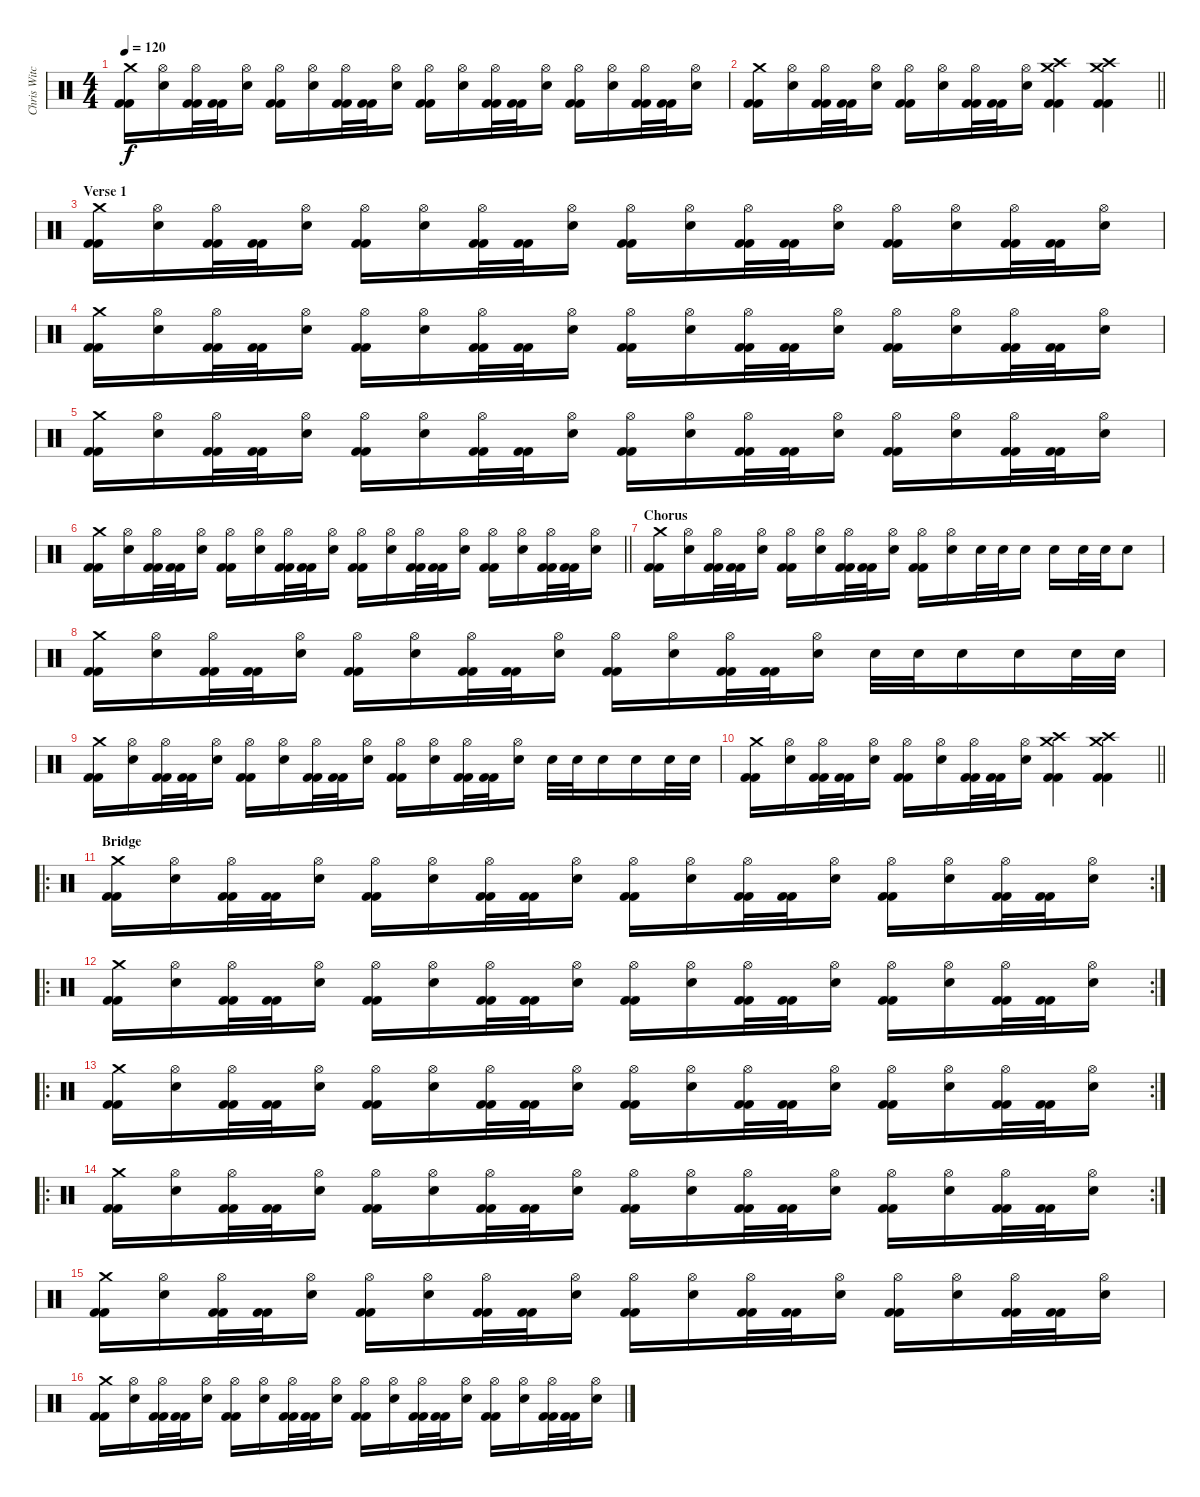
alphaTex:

\track ("Chris Witchhunter" "Chris Witc") {instrument percussion}
\staff {score}
\articulation defaults
\ts (4 4)
\tempo 120
\clef neutral
\ks c
("Crash medium (hit)" "Kick (hit) 2" "Kick (hit) 2").16{dy f} ("Hi-Hat (open)" "Snare (hit) 2").16 ("Hi-Hat (open)" "Kick (hit) 2" "Kick (hit) 2").32 ("Kick (hit) 2" "Kick (hit) 2").32 ("Hi-Hat (open)" "Snare (hit) 2").16 ("Hi-Hat (open)" "Kick (hit) 2" "Kick (hit) 2").16 ("Hi-Hat (open)" "Snare (hit) 2").16 ("Hi-Hat (open)" "Kick (hit) 2" "Kick (hit) 2").32 ("Kick (hit) 2" "Kick (hit) 2").32 ("Hi-Hat (open)" "Snare (hit) 2").16 ("Hi-Hat (open)" "Kick (hit) 2" "Kick (hit) 2").16 ("Hi-Hat (open)" "Snare (hit) 2").16 ("Hi-Hat (open)" "Kick (hit) 2" "Kick (hit) 2").32 ("Kick (hit) 2" "Kick (hit) 2").32 ("Hi-Hat (open)" "Snare (hit) 2").16 ("Hi-Hat (open)" "Kick (hit) 2" "Kick (hit) 2").16 ("Hi-Hat (open)" "Snare (hit) 2").16 ("Hi-Hat (open)" "Kick (hit) 2" "Kick (hit) 2").32 ("Kick (hit) 2" "Kick (hit) 2").32 ("Hi-Hat (open)" "Snare (hit) 2").16 |
\barLineRight lightlight
("Crash medium (hit)" "Kick (hit) 2" "Kick (hit) 2").16 ("Hi-Hat (open)" "Snare (hit) 2").16 ("Hi-Hat (open)" "Kick (hit) 2" "Kick (hit) 2").32 ("Kick (hit) 2" "Kick (hit) 2").32 ("Hi-Hat (open)" "Snare (hit) 2").16 ("Hi-Hat (open)" "Kick (hit) 2" "Kick (hit) 2").16 ("Hi-Hat (open)" "Snare (hit) 2").16 ("Hi-Hat (open)" "Kick (hit) 2" "Kick (hit) 2").32 ("Kick (hit) 2" "Kick (hit) 2").32 ("Hi-Hat (open)" "Snare (hit) 2").16 ("Crash high (hit)" "Crash medium (hit)" "Kick (hit) 2" "Kick (hit) 2").4 ("Crash high (hit)" "Crash medium (hit)" "Kick (hit) 2" "Kick (hit) 2").4 |
\section ("" "Verse 1")
("Crash medium (hit)" "Kick (hit) 2" "Kick (hit) 2").16 ("Hi-Hat (open)" "Snare (hit) 2").16 ("Hi-Hat (open)" "Kick (hit) 2" "Kick (hit) 2").32 ("Kick (hit) 2" "Kick (hit) 2").32 ("Hi-Hat (open)" "Snare (hit) 2").16 ("Hi-Hat (open)" "Kick (hit) 2" "Kick (hit) 2").16 ("Hi-Hat (open)" "Snare (hit) 2").16 ("Hi-Hat (open)" "Kick (hit) 2" "Kick (hit) 2").32 ("Kick (hit) 2" "Kick (hit) 2").32 ("Hi-Hat (open)" "Snare (hit) 2").16 ("Hi-Hat (open)" "Kick (hit) 2" "Kick (hit) 2").16 ("Hi-Hat (open)" "Snare (hit) 2").16 ("Hi-Hat (open)" "Kick (hit) 2" "Kick (hit) 2").32 ("Kick (hit) 2" "Kick (hit) 2").32 ("Hi-Hat (open)" "Snare (hit) 2").16 ("Hi-Hat (open)" "Kick (hit) 2" "Kick (hit) 2").16 ("Hi-Hat (open)" "Snare (hit) 2").16 ("Hi-Hat (open)" "Kick (hit) 2" "Kick (hit) 2").32 ("Kick (hit) 2" "Kick (hit) 2").32 ("Hi-Hat (open)" "Snare (hit) 2").16 |
("Crash medium (hit)" "Kick (hit) 2" "Kick (hit) 2").16 ("Hi-Hat (open)" "Snare (hit) 2").16 ("Hi-Hat (open)" "Kick (hit) 2" "Kick (hit) 2").32 ("Kick (hit) 2" "Kick (hit) 2").32 ("Hi-Hat (open)" "Snare (hit) 2").16 ("Hi-Hat (open)" "Kick (hit) 2" "Kick (hit) 2").16 ("Hi-Hat (open)" "Snare (hit) 2").16 ("Hi-Hat (open)" "Kick (hit) 2" "Kick (hit) 2").32 ("Kick (hit) 2" "Kick (hit) 2").32 ("Hi-Hat (open)" "Snare (hit) 2").16 ("Hi-Hat (open)" "Kick (hit) 2" "Kick (hit) 2").16 ("Hi-Hat (open)" "Snare (hit) 2").16 ("Hi-Hat (open)" "Kick (hit) 2" "Kick (hit) 2").32 ("Kick (hit) 2" "Kick (hit) 2").32 ("Hi-Hat (open)" "Snare (hit) 2").16 ("Hi-Hat (open)" "Kick (hit) 2" "Kick (hit) 2").16 ("Hi-Hat (open)" "Snare (hit) 2").16 ("Hi-Hat (open)" "Kick (hit) 2" "Kick (hit) 2").32 ("Kick (hit) 2" "Kick (hit) 2").32 ("Hi-Hat (open)" "Snare (hit) 2").16 |
("Crash medium (hit)" "Kick (hit) 2" "Kick (hit) 2").16 ("Hi-Hat (open)" "Snare (hit) 2").16 ("Hi-Hat (open)" "Kick (hit) 2" "Kick (hit) 2").32 ("Kick (hit) 2" "Kick (hit) 2").32 ("Hi-Hat (open)" "Snare (hit) 2").16 ("Hi-Hat (open)" "Kick (hit) 2" "Kick (hit) 2").16 ("Hi-Hat (open)" "Snare (hit) 2").16 ("Hi-Hat (open)" "Kick (hit) 2" "Kick (hit) 2").32 ("Kick (hit) 2" "Kick (hit) 2").32 ("Hi-Hat (open)" "Snare (hit) 2").16 ("Hi-Hat (open)" "Kick (hit) 2" "Kick (hit) 2").16 ("Hi-Hat (open)" "Snare (hit) 2").16 ("Hi-Hat (open)" "Kick (hit) 2" "Kick (hit) 2").32 ("Kick (hit) 2" "Kick (hit) 2").32 ("Hi-Hat (open)" "Snare (hit) 2").16 ("Hi-Hat (open)" "Kick (hit) 2" "Kick (hit) 2").16 ("Hi-Hat (open)" "Snare (hit) 2").16 ("Hi-Hat (open)" "Kick (hit) 2" "Kick (hit) 2").32 ("Kick (hit) 2" "Kick (hit) 2").32 ("Hi-Hat (open)" "Snare (hit) 2").16 |
\barLineRight lightlight
("Crash medium (hit)" "Kick (hit) 2" "Kick (hit) 2").16 ("Hi-Hat (open)" "Snare (hit) 2").16 ("Hi-Hat (open)" "Kick (hit) 2" "Kick (hit) 2").32 ("Kick (hit) 2" "Kick (hit) 2").32 ("Hi-Hat (open)" "Snare (hit) 2").16 ("Hi-Hat (open)" "Kick (hit) 2" "Kick (hit) 2").16 ("Hi-Hat (open)" "Snare (hit) 2").16 ("Hi-Hat (open)" "Kick (hit) 2" "Kick (hit) 2").32 ("Kick (hit) 2" "Kick (hit) 2").32 ("Hi-Hat (open)" "Snare (hit) 2").16 ("Hi-Hat (open)" "Kick (hit) 2" "Kick (hit) 2").16 ("Hi-Hat (open)" "Snare (hit) 2").16 ("Hi-Hat (open)" "Kick (hit) 2" "Kick (hit) 2").32 ("Kick (hit) 2" "Kick (hit) 2").32 ("Hi-Hat (open)" "Snare (hit) 2").16 ("Hi-Hat (open)" "Kick (hit) 2" "Kick (hit) 2").16 ("Hi-Hat (open)" "Snare (hit) 2").16 ("Hi-Hat (open)" "Kick (hit) 2" "Kick (hit) 2").32 ("Kick (hit) 2" "Kick (hit) 2").32 ("Hi-Hat (open)" "Snare (hit) 2").16 |
\section ("" "Chorus")
("Crash medium (hit)" "Kick (hit) 2" "Kick (hit) 2").16 ("Hi-Hat (open)" "Snare (hit) 2").16 ("Hi-Hat (open)" "Kick (hit) 2" "Kick (hit) 2").32 ("Kick (hit) 2" "Kick (hit) 2").32 ("Hi-Hat (open)" "Snare (hit) 2").16 ("Hi-Hat (open)" "Kick (hit) 2" "Kick (hit) 2").16 ("Hi-Hat (open)" "Snare (hit) 2").16 ("Hi-Hat (open)" "Kick (hit) 2" "Kick (hit) 2").32 ("Kick (hit) 2" "Kick (hit) 2").32 ("Hi-Hat (open)" "Snare (hit) 2").16 ("Hi-Hat (open)" "Kick (hit) 2" "Kick (hit) 2").16 ("Hi-Hat (open)" "Snare (hit) 2").16 "Snare (hit) 2".32 "Snare (hit) 2".32 "Snare (hit) 2".16 "Snare (hit) 2".16 "Snare (hit) 2".32 "Snare (hit) 2".32 "Snare (hit) 2".8 |
("Crash medium (hit)" "Kick (hit) 2" "Kick (hit) 2").16 ("Hi-Hat (open)" "Snare (hit) 2").16 ("Hi-Hat (open)" "Kick (hit) 2" "Kick (hit) 2").32 ("Kick (hit) 2" "Kick (hit) 2").32 ("Hi-Hat (open)" "Snare (hit) 2").16 ("Hi-Hat (open)" "Kick (hit) 2" "Kick (hit) 2").16 ("Hi-Hat (open)" "Snare (hit) 2").16 ("Hi-Hat (open)" "Kick (hit) 2" "Kick (hit) 2").32 ("Kick (hit) 2" "Kick (hit) 2").32 ("Hi-Hat (open)" "Snare (hit) 2").16 ("Hi-Hat (open)" "Kick (hit) 2" "Kick (hit) 2").16 ("Hi-Hat (open)" "Snare (hit) 2").16 ("Hi-Hat (open)" "Kick (hit) 2" "Kick (hit) 2").32 ("Kick (hit) 2" "Kick (hit) 2").32 ("Hi-Hat (open)" "Snare (hit) 2").16 "Snare (hit) 2".32 "Snare (hit) 2".32 "Snare (hit) 2".16 "Snare (hit) 2".16 "Snare (hit) 2".32 "Snare (hit) 2".32 |
("Crash medium (hit)" "Kick (hit) 2" "Kick (hit) 2").16 ("Hi-Hat (open)" "Snare (hit) 2").16 ("Hi-Hat (open)" "Kick (hit) 2" "Kick (hit) 2").32 ("Kick (hit) 2" "Kick (hit) 2").32 ("Hi-Hat (open)" "Snare (hit) 2").16 ("Hi-Hat (open)" "Kick (hit) 2" "Kick (hit) 2").16 ("Hi-Hat (open)" "Snare (hit) 2").16 ("Hi-Hat (open)" "Kick (hit) 2" "Kick (hit) 2").32 ("Kick (hit) 2" "Kick (hit) 2").32 ("Hi-Hat (open)" "Snare (hit) 2").16 ("Hi-Hat (open)" "Kick (hit) 2" "Kick (hit) 2").16 ("Hi-Hat (open)" "Snare (hit) 2").16 ("Hi-Hat (open)" "Kick (hit) 2" "Kick (hit) 2").32 ("Kick (hit) 2" "Kick (hit) 2").32 ("Hi-Hat (open)" "Snare (hit) 2").16 "Snare (hit) 2".32 "Snare (hit) 2".32 "Snare (hit) 2".16 "Snare (hit) 2".16 "Snare (hit) 2".32 "Snare (hit) 2".32 |
\barLineRight lightlight
("Crash medium (hit)" "Kick (hit) 2" "Kick (hit) 2").16 ("Hi-Hat (open)" "Snare (hit) 2").16 ("Hi-Hat (open)" "Kick (hit) 2" "Kick (hit) 2").32 ("Kick (hit) 2" "Kick (hit) 2").32 ("Hi-Hat (open)" "Snare (hit) 2").16 ("Hi-Hat (open)" "Kick (hit) 2" "Kick (hit) 2").16 ("Hi-Hat (open)" "Snare (hit) 2").16 ("Hi-Hat (open)" "Kick (hit) 2" "Kick (hit) 2").32 ("Kick (hit) 2" "Kick (hit) 2").32 ("Hi-Hat (open)" "Snare (hit) 2").16 ("Crash high (hit)" "Crash medium (hit)" "Kick (hit) 2" "Kick (hit) 2").4 ("Crash high (hit)" "Crash medium (hit)" "Kick (hit) 2" "Kick (hit) 2").4 |
\ro
\rc 2
\section ("" "Bridge")
("Crash medium (hit)" "Kick (hit) 2" "Kick (hit) 2").16 ("Hi-Hat (open)" "Snare (hit) 2").16 ("Hi-Hat (open)" "Kick (hit) 2" "Kick (hit) 2").32 ("Kick (hit) 2" "Kick (hit) 2").32 ("Hi-Hat (open)" "Snare (hit) 2").16 ("Hi-Hat (open)" "Kick (hit) 2" "Kick (hit) 2").16 ("Hi-Hat (open)" "Snare (hit) 2").16 ("Hi-Hat (open)" "Kick (hit) 2" "Kick (hit) 2").32 ("Kick (hit) 2" "Kick (hit) 2").32 ("Hi-Hat (open)" "Snare (hit) 2").16 ("Hi-Hat (open)" "Kick (hit) 2" "Kick (hit) 2").16 ("Hi-Hat (open)" "Snare (hit) 2").16 ("Hi-Hat (open)" "Kick (hit) 2" "Kick (hit) 2").32 ("Kick (hit) 2" "Kick (hit) 2").32 ("Hi-Hat (open)" "Snare (hit) 2").16 ("Hi-Hat (open)" "Kick (hit) 2" "Kick (hit) 2").16 ("Hi-Hat (open)" "Snare (hit) 2").16 ("Hi-Hat (open)" "Kick (hit) 2" "Kick (hit) 2").32 ("Kick (hit) 2" "Kick (hit) 2").32 ("Hi-Hat (open)" "Snare (hit) 2").16 |
\ro
\rc 2
("Crash medium (hit)" "Kick (hit) 2" "Kick (hit) 2").16 ("Hi-Hat (open)" "Snare (hit) 2").16 ("Hi-Hat (open)" "Kick (hit) 2" "Kick (hit) 2").32 ("Kick (hit) 2" "Kick (hit) 2").32 ("Hi-Hat (open)" "Snare (hit) 2").16 ("Hi-Hat (open)" "Kick (hit) 2" "Kick (hit) 2").16 ("Hi-Hat (open)" "Snare (hit) 2").16 ("Hi-Hat (open)" "Kick (hit) 2" "Kick (hit) 2").32 ("Kick (hit) 2" "Kick (hit) 2").32 ("Hi-Hat (open)" "Snare (hit) 2").16 ("Hi-Hat (open)" "Kick (hit) 2" "Kick (hit) 2").16 ("Hi-Hat (open)" "Snare (hit) 2").16 ("Hi-Hat (open)" "Kick (hit) 2" "Kick (hit) 2").32 ("Kick (hit) 2" "Kick (hit) 2").32 ("Hi-Hat (open)" "Snare (hit) 2").16 ("Hi-Hat (open)" "Kick (hit) 2" "Kick (hit) 2").16 ("Hi-Hat (open)" "Snare (hit) 2").16 ("Hi-Hat (open)" "Kick (hit) 2" "Kick (hit) 2").32 ("Kick (hit) 2" "Kick (hit) 2").32 ("Hi-Hat (open)" "Snare (hit) 2").16 |
\ro
\rc 2
("Crash medium (hit)" "Kick (hit) 2" "Kick (hit) 2").16 ("Hi-Hat (open)" "Snare (hit) 2").16 ("Hi-Hat (open)" "Kick (hit) 2" "Kick (hit) 2").32 ("Kick (hit) 2" "Kick (hit) 2").32 ("Hi-Hat (open)" "Snare (hit) 2").16 ("Hi-Hat (open)" "Kick (hit) 2" "Kick (hit) 2").16 ("Hi-Hat (open)" "Snare (hit) 2").16 ("Hi-Hat (open)" "Kick (hit) 2" "Kick (hit) 2").32 ("Kick (hit) 2" "Kick (hit) 2").32 ("Hi-Hat (open)" "Snare (hit) 2").16 ("Hi-Hat (open)" "Kick (hit) 2" "Kick (hit) 2").16 ("Hi-Hat (open)" "Snare (hit) 2").16 ("Hi-Hat (open)" "Kick (hit) 2" "Kick (hit) 2").32 ("Kick (hit) 2" "Kick (hit) 2").32 ("Hi-Hat (open)" "Snare (hit) 2").16 ("Hi-Hat (open)" "Kick (hit) 2" "Kick (hit) 2").16 ("Hi-Hat (open)" "Snare (hit) 2").16 ("Hi-Hat (open)" "Kick (hit) 2" "Kick (hit) 2").32 ("Kick (hit) 2" "Kick (hit) 2").32 ("Hi-Hat (open)" "Snare (hit) 2").16 |
\ro
\rc 2
("Crash medium (hit)" "Kick (hit) 2" "Kick (hit) 2").16 ("Hi-Hat (open)" "Snare (hit) 2").16 ("Hi-Hat (open)" "Kick (hit) 2" "Kick (hit) 2").32 ("Kick (hit) 2" "Kick (hit) 2").32 ("Hi-Hat (open)" "Snare (hit) 2").16 ("Hi-Hat (open)" "Kick (hit) 2" "Kick (hit) 2").16 ("Hi-Hat (open)" "Snare (hit) 2").16 ("Hi-Hat (open)" "Kick (hit) 2" "Kick (hit) 2").32 ("Kick (hit) 2" "Kick (hit) 2").32 ("Hi-Hat (open)" "Snare (hit) 2").16 ("Hi-Hat (open)" "Kick (hit) 2" "Kick (hit) 2").16 ("Hi-Hat (open)" "Snare (hit) 2").16 ("Hi-Hat (open)" "Kick (hit) 2" "Kick (hit) 2").32 ("Kick (hit) 2" "Kick (hit) 2").32 ("Hi-Hat (open)" "Snare (hit) 2").16 ("Hi-Hat (open)" "Kick (hit) 2" "Kick (hit) 2").16 ("Hi-Hat (open)" "Snare (hit) 2").16 ("Hi-Hat (open)" "Kick (hit) 2" "Kick (hit) 2").32 ("Kick (hit) 2" "Kick (hit) 2").32 ("Hi-Hat (open)" "Snare (hit) 2").16 |
("Crash medium (hit)" "Kick (hit) 2" "Kick (hit) 2").16 ("Hi-Hat (open)" "Snare (hit) 2").16 ("Hi-Hat (open)" "Kick (hit) 2" "Kick (hit) 2").32 ("Kick (hit) 2" "Kick (hit) 2").32 ("Hi-Hat (open)" "Snare (hit) 2").16 ("Hi-Hat (open)" "Kick (hit) 2" "Kick (hit) 2").16 ("Hi-Hat (open)" "Snare (hit) 2").16 ("Hi-Hat (open)" "Kick (hit) 2" "Kick (hit) 2").32 ("Kick (hit) 2" "Kick (hit) 2").32 ("Hi-Hat (open)" "Snare (hit) 2").16 ("Hi-Hat (open)" "Kick (hit) 2" "Kick (hit) 2").16 ("Hi-Hat (open)" "Snare (hit) 2").16 ("Hi-Hat (open)" "Kick (hit) 2" "Kick (hit) 2").32 ("Kick (hit) 2" "Kick (hit) 2").32 ("Hi-Hat (open)" "Snare (hit) 2").16 ("Hi-Hat (open)" "Kick (hit) 2" "Kick (hit) 2").16 ("Hi-Hat (open)" "Snare (hit) 2").16 ("Hi-Hat (open)" "Kick (hit) 2" "Kick (hit) 2").32 ("Kick (hit) 2" "Kick (hit) 2").32 ("Hi-Hat (open)" "Snare (hit) 2").16 |
("Crash medium (hit)" "Kick (hit) 2" "Kick (hit) 2").16 ("Hi-Hat (open)" "Snare (hit) 2").16 ("Hi-Hat (open)" "Kick (hit) 2" "Kick (hit) 2").32 ("Kick (hit) 2" "Kick (hit) 2").32 ("Hi-Hat (open)" "Snare (hit) 2").16 ("Hi-Hat (open)" "Kick (hit) 2" "Kick (hit) 2").16 ("Hi-Hat (open)" "Snare (hit) 2").16 ("Hi-Hat (open)" "Kick (hit) 2" "Kick (hit) 2").32 ("Kick (hit) 2" "Kick (hit) 2").32 ("Hi-Hat (open)" "Snare (hit) 2").16 ("Hi-Hat (open)" "Kick (hit) 2" "Kick (hit) 2").16 ("Hi-Hat (open)" "Snare (hit) 2").16 ("Hi-Hat (open)" "Kick (hit) 2" "Kick (hit) 2").32 ("Kick (hit) 2" "Kick (hit) 2").32 ("Hi-Hat (open)" "Snare (hit) 2").16 ("Hi-Hat (open)" "Kick (hit) 2" "Kick (hit) 2").16 ("Hi-Hat (open)" "Snare (hit) 2").16 ("Hi-Hat (open)" "Kick (hit) 2" "Kick (hit) 2").32 ("Kick (hit) 2" "Kick (hit) 2").32 ("Hi-Hat (open)" "Snare (hit) 2").16
